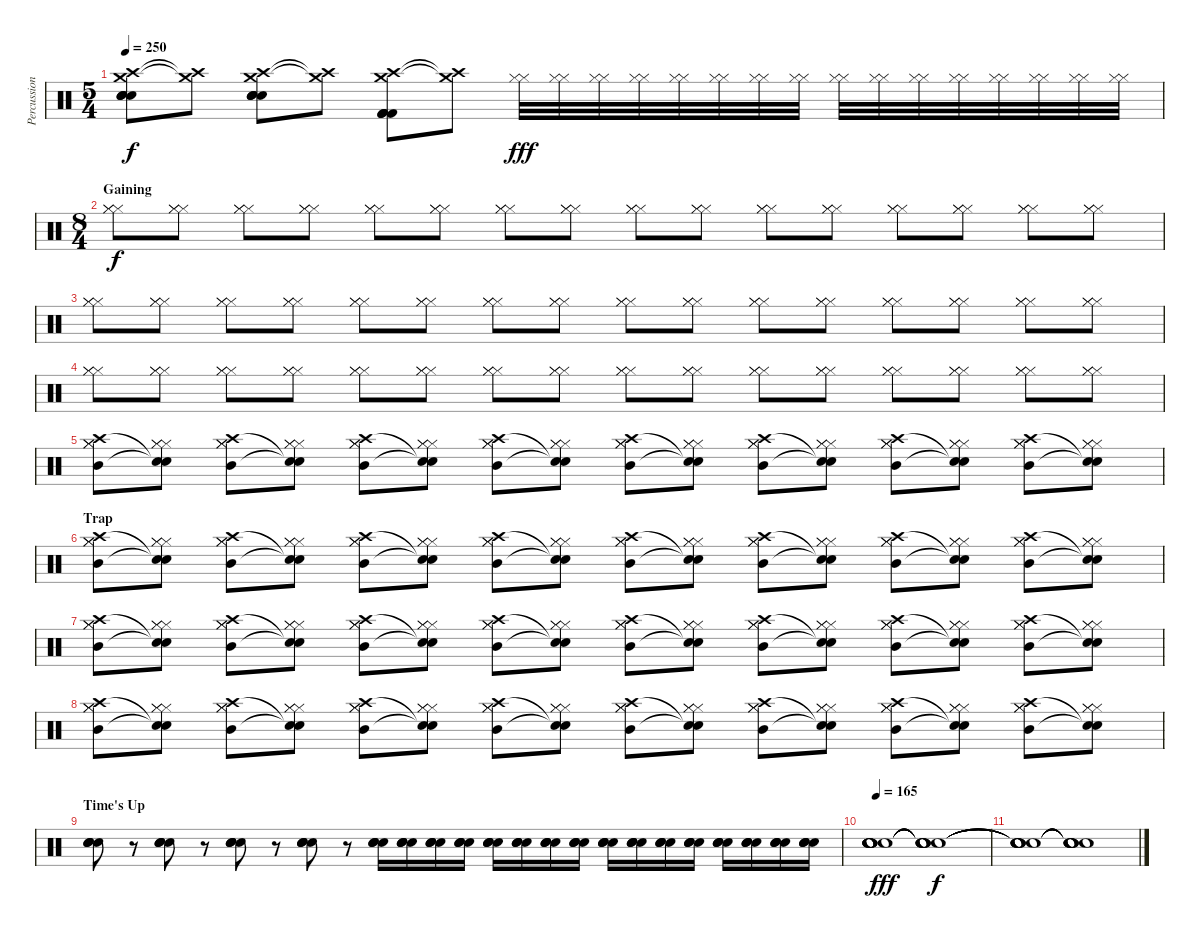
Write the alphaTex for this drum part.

\track ("Percussion" "Percussion") {instrument percussion}
\staff {score}
\articulation defaults
\ts (5 4)
\tempo 250
\clef neutral
\ks c
("Crash high (hit)" "Crash medium (hit)" "Snare (hit) 2" "Snare (hit) 2" "Snare (hit) 2" "Snare (hit) 2").8{dy f} ("Crash high (hit)"{t} "Crash medium (hit)"{t}).8 ("Crash high (hit)" "Crash medium (hit)" "Snare (hit) 2" "Snare (hit) 2" "Snare (hit) 2" "Snare (hit) 2").8 ("Crash high (hit)"{t} "Crash medium (hit)"{t}).8 ("Crash high (hit)" "Crash medium (hit)" "Kick (hit) 2" "Kick (hit) 2" "Kick (hit) 2" "Kick (hit) 2").8 ("Crash high (hit)"{t} "Crash medium (hit)"{t}).8 ("Hi-Hat (closed)" "Hi-Hat (closed)").32{dy fff} ("Hi-Hat (closed)" "Hi-Hat (closed)").32 ("Hi-Hat (closed)" "Hi-Hat (closed)").32 ("Hi-Hat (closed)" "Hi-Hat (closed)").32 ("Hi-Hat (closed)" "Hi-Hat (closed)").32 ("Hi-Hat (closed)" "Hi-Hat (closed)").32 ("Hi-Hat (closed)" "Hi-Hat (closed)").32 ("Hi-Hat (closed)" "Hi-Hat (closed)").32 ("Hi-Hat (closed)" "Hi-Hat (closed)").32 ("Hi-Hat (closed)" "Hi-Hat (closed)").32 ("Hi-Hat (closed)" "Hi-Hat (closed)").32 ("Hi-Hat (closed)" "Hi-Hat (closed)").32 ("Hi-Hat (closed)" "Hi-Hat (closed)").32 ("Hi-Hat (closed)" "Hi-Hat (closed)").32 ("Hi-Hat (closed)" "Hi-Hat (closed)").32 ("Hi-Hat (closed)" "Hi-Hat (closed)").32 |
\ts (8 4)
\section ("" "Gaining")
("Hi-Hat (closed)" "Hi-Hat (closed)" "Hi-Hat (closed)").8{dy f} ("Hi-Hat (closed)" "Hi-Hat (closed)" "Hi-Hat (closed)").8 ("Hi-Hat (closed)" "Hi-Hat (closed)" "Hi-Hat (closed)").8 ("Hi-Hat (closed)" "Hi-Hat (closed)" "Hi-Hat (closed)").8 ("Hi-Hat (closed)" "Hi-Hat (closed)" "Hi-Hat (closed)").8 ("Hi-Hat (closed)" "Hi-Hat (closed)" "Hi-Hat (closed)").8 ("Hi-Hat (closed)" "Hi-Hat (closed)" "Hi-Hat (closed)").8 ("Hi-Hat (closed)" "Hi-Hat (closed)" "Hi-Hat (closed)").8 ("Hi-Hat (closed)" "Hi-Hat (closed)" "Hi-Hat (closed)").8 ("Hi-Hat (closed)" "Hi-Hat (closed)" "Hi-Hat (closed)").8 ("Hi-Hat (closed)" "Hi-Hat (closed)" "Hi-Hat (closed)").8 ("Hi-Hat (closed)" "Hi-Hat (closed)" "Hi-Hat (closed)").8 ("Hi-Hat (closed)" "Hi-Hat (closed)" "Hi-Hat (closed)").8 ("Hi-Hat (closed)" "Hi-Hat (closed)" "Hi-Hat (closed)").8 ("Hi-Hat (closed)" "Hi-Hat (closed)" "Hi-Hat (closed)").8 ("Hi-Hat (closed)" "Hi-Hat (closed)" "Hi-Hat (closed)").8 |
("Hi-Hat (closed)" "Hi-Hat (closed)" "Hi-Hat (closed)").8 ("Hi-Hat (closed)" "Hi-Hat (closed)" "Hi-Hat (closed)").8 ("Hi-Hat (closed)" "Hi-Hat (closed)" "Hi-Hat (closed)").8 ("Hi-Hat (closed)" "Hi-Hat (closed)" "Hi-Hat (closed)").8 ("Hi-Hat (closed)" "Hi-Hat (closed)" "Hi-Hat (closed)").8 ("Hi-Hat (closed)" "Hi-Hat (closed)" "Hi-Hat (closed)").8 ("Hi-Hat (closed)" "Hi-Hat (closed)" "Hi-Hat (closed)").8 ("Hi-Hat (closed)" "Hi-Hat (closed)" "Hi-Hat (closed)").8 ("Hi-Hat (closed)" "Hi-Hat (closed)" "Hi-Hat (closed)").8 ("Hi-Hat (closed)" "Hi-Hat (closed)" "Hi-Hat (closed)").8 ("Hi-Hat (closed)" "Hi-Hat (closed)" "Hi-Hat (closed)").8 ("Hi-Hat (closed)" "Hi-Hat (closed)" "Hi-Hat (closed)").8 ("Hi-Hat (closed)" "Hi-Hat (closed)" "Hi-Hat (closed)").8 ("Hi-Hat (closed)" "Hi-Hat (closed)" "Hi-Hat (closed)").8 ("Hi-Hat (closed)" "Hi-Hat (closed)" "Hi-Hat (closed)").8 ("Hi-Hat (closed)" "Hi-Hat (closed)" "Hi-Hat (closed)").8 |
("Hi-Hat (closed)" "Hi-Hat (closed)" "Hi-Hat (closed)").8 ("Hi-Hat (closed)" "Hi-Hat (closed)" "Hi-Hat (closed)").8 ("Hi-Hat (closed)" "Hi-Hat (closed)" "Hi-Hat (closed)").8 ("Hi-Hat (closed)" "Hi-Hat (closed)" "Hi-Hat (closed)").8 ("Hi-Hat (closed)" "Hi-Hat (closed)" "Hi-Hat (closed)").8 ("Hi-Hat (closed)" "Hi-Hat (closed)" "Hi-Hat (closed)").8 ("Hi-Hat (closed)" "Hi-Hat (closed)" "Hi-Hat (closed)").8 ("Hi-Hat (closed)" "Hi-Hat (closed)" "Hi-Hat (closed)").8 ("Hi-Hat (closed)" "Hi-Hat (closed)" "Hi-Hat (closed)").8 ("Hi-Hat (closed)" "Hi-Hat (closed)" "Hi-Hat (closed)").8 ("Hi-Hat (closed)" "Hi-Hat (closed)" "Hi-Hat (closed)").8 ("Hi-Hat (closed)" "Hi-Hat (closed)" "Hi-Hat (closed)").8 ("Hi-Hat (closed)" "Hi-Hat (closed)" "Hi-Hat (closed)").8 ("Hi-Hat (closed)" "Hi-Hat (closed)" "Hi-Hat (closed)").8 ("Hi-Hat (closed)" "Hi-Hat (closed)" "Hi-Hat (closed)").8 ("Hi-Hat (closed)" "Hi-Hat (closed)" "Hi-Hat (closed)").8 |
("Hi-Hat (closed)" "Hi-Hat (closed)" "Hi-Hat (closed)" "Crash high (hit)" "Mid Tom (hit)").8 ("Hi-Hat (closed)" "Hi-Hat (closed)" "Hi-Hat (closed)" "Snare (hit)"{t} "Snare (hit)"{t}).8 ("Hi-Hat (closed)" "Hi-Hat (closed)" "Hi-Hat (closed)" "Crash high (hit)" "Mid Tom (hit)").8 ("Hi-Hat (closed)" "Hi-Hat (closed)" "Hi-Hat (closed)" "Snare (hit)"{t} "Snare (hit)"{t}).8 ("Hi-Hat (closed)" "Hi-Hat (closed)" "Hi-Hat (closed)" "Crash high (hit)" "Mid Tom (hit)").8 ("Hi-Hat (closed)" "Hi-Hat (closed)" "Hi-Hat (closed)" "Snare (hit)"{t} "Snare (hit)"{t}).8 ("Hi-Hat (closed)" "Hi-Hat (closed)" "Hi-Hat (closed)" "Crash high (hit)" "Mid Tom (hit)").8 ("Hi-Hat (closed)" "Hi-Hat (closed)" "Hi-Hat (closed)" "Snare (hit)"{t} "Snare (hit)"{t}).8 ("Hi-Hat (closed)" "Hi-Hat (closed)" "Hi-Hat (closed)" "Crash high (hit)" "Mid Tom (hit)").8 ("Hi-Hat (closed)" "Hi-Hat (closed)" "Hi-Hat (closed)" "Snare (hit)"{t} "Snare (hit)"{t}).8 ("Hi-Hat (closed)" "Hi-Hat (closed)" "Hi-Hat (closed)" "Crash high (hit)" "Mid Tom (hit)").8 ("Hi-Hat (closed)" "Hi-Hat (closed)" "Hi-Hat (closed)" "Snare (hit)"{t} "Snare (hit)"{t}).8 ("Hi-Hat (closed)" "Hi-Hat (closed)" "Hi-Hat (closed)" "Crash high (hit)" "Mid Tom (hit)").8 ("Hi-Hat (closed)" "Hi-Hat (closed)" "Hi-Hat (closed)" "Snare (hit)"{t} "Snare (hit)"{t}).8 ("Hi-Hat (closed)" "Hi-Hat (closed)" "Hi-Hat (closed)" "Crash high (hit)" "Mid Tom (hit)").8 ("Hi-Hat (closed)" "Hi-Hat (closed)" "Hi-Hat (closed)" "Snare (hit)"{t} "Snare (hit)"{t}).8 |
\section ("" "Trap")
("Hi-Hat (closed)" "Hi-Hat (closed)" "Hi-Hat (closed)" "Crash high (hit)" "Mid Tom (hit)").8 ("Hi-Hat (closed)" "Hi-Hat (closed)" "Hi-Hat (closed)" "Snare (hit)"{t} "Snare (hit)"{t}).8 ("Hi-Hat (closed)" "Hi-Hat (closed)" "Hi-Hat (closed)" "Crash high (hit)" "Mid Tom (hit)").8 ("Hi-Hat (closed)" "Hi-Hat (closed)" "Hi-Hat (closed)" "Snare (hit)"{t} "Snare (hit)"{t}).8 ("Hi-Hat (closed)" "Hi-Hat (closed)" "Hi-Hat (closed)" "Crash high (hit)" "Mid Tom (hit)").8 ("Hi-Hat (closed)" "Hi-Hat (closed)" "Hi-Hat (closed)" "Snare (hit)"{t} "Snare (hit)"{t}).8 ("Hi-Hat (closed)" "Hi-Hat (closed)" "Hi-Hat (closed)" "Crash high (hit)" "Mid Tom (hit)").8 ("Hi-Hat (closed)" "Hi-Hat (closed)" "Hi-Hat (closed)" "Snare (hit)"{t} "Snare (hit)"{t}).8 ("Hi-Hat (closed)" "Hi-Hat (closed)" "Hi-Hat (closed)" "Crash high (hit)" "Mid Tom (hit)").8 ("Hi-Hat (closed)" "Hi-Hat (closed)" "Hi-Hat (closed)" "Snare (hit)"{t} "Snare (hit)"{t}).8 ("Hi-Hat (closed)" "Hi-Hat (closed)" "Hi-Hat (closed)" "Crash high (hit)" "Mid Tom (hit)").8 ("Hi-Hat (closed)" "Hi-Hat (closed)" "Hi-Hat (closed)" "Snare (hit)"{t} "Snare (hit)"{t}).8 ("Hi-Hat (closed)" "Hi-Hat (closed)" "Hi-Hat (closed)" "Crash high (hit)" "Mid Tom (hit)").8 ("Hi-Hat (closed)" "Hi-Hat (closed)" "Hi-Hat (closed)" "Snare (hit)"{t} "Snare (hit)"{t}).8 ("Hi-Hat (closed)" "Hi-Hat (closed)" "Hi-Hat (closed)" "Crash high (hit)" "Mid Tom (hit)").8 ("Hi-Hat (closed)" "Hi-Hat (closed)" "Hi-Hat (closed)" "Snare (hit)"{t} "Snare (hit)"{t}).8 |
("Hi-Hat (closed)" "Hi-Hat (closed)" "Hi-Hat (closed)" "Crash high (hit)" "Mid Tom (hit)").8 ("Hi-Hat (closed)" "Hi-Hat (closed)" "Hi-Hat (closed)" "Snare (hit)"{t} "Snare (hit)"{t}).8 ("Hi-Hat (closed)" "Hi-Hat (closed)" "Hi-Hat (closed)" "Crash high (hit)" "Mid Tom (hit)").8 ("Hi-Hat (closed)" "Hi-Hat (closed)" "Hi-Hat (closed)" "Snare (hit)"{t} "Snare (hit)"{t}).8 ("Hi-Hat (closed)" "Hi-Hat (closed)" "Hi-Hat (closed)" "Crash high (hit)" "Mid Tom (hit)").8 ("Hi-Hat (closed)" "Hi-Hat (closed)" "Hi-Hat (closed)" "Snare (hit)"{t} "Snare (hit)"{t}).8 ("Hi-Hat (closed)" "Hi-Hat (closed)" "Hi-Hat (closed)" "Crash high (hit)" "Mid Tom (hit)").8 ("Hi-Hat (closed)" "Hi-Hat (closed)" "Hi-Hat (closed)" "Snare (hit)"{t} "Snare (hit)"{t}).8 ("Hi-Hat (closed)" "Hi-Hat (closed)" "Hi-Hat (closed)" "Crash high (hit)" "Mid Tom (hit)").8 ("Hi-Hat (closed)" "Hi-Hat (closed)" "Hi-Hat (closed)" "Snare (hit)"{t} "Snare (hit)"{t}).8 ("Hi-Hat (closed)" "Hi-Hat (closed)" "Hi-Hat (closed)" "Crash high (hit)" "Mid Tom (hit)").8 ("Hi-Hat (closed)" "Hi-Hat (closed)" "Hi-Hat (closed)" "Snare (hit)"{t} "Snare (hit)"{t}).8 ("Hi-Hat (closed)" "Hi-Hat (closed)" "Hi-Hat (closed)" "Crash high (hit)" "Mid Tom (hit)").8 ("Hi-Hat (closed)" "Hi-Hat (closed)" "Hi-Hat (closed)" "Snare (hit)"{t} "Snare (hit)"{t}).8 ("Hi-Hat (closed)" "Hi-Hat (closed)" "Hi-Hat (closed)" "Crash high (hit)" "Mid Tom (hit)").8 ("Hi-Hat (closed)" "Hi-Hat (closed)" "Hi-Hat (closed)" "Snare (hit)"{t} "Snare (hit)"{t}).8 |
("Hi-Hat (closed)" "Hi-Hat (closed)" "Hi-Hat (closed)" "Crash high (hit)" "Mid Tom (hit)").8 ("Hi-Hat (closed)" "Hi-Hat (closed)" "Hi-Hat (closed)" "Snare (hit)"{t} "Snare (hit)"{t}).8 ("Hi-Hat (closed)" "Hi-Hat (closed)" "Hi-Hat (closed)" "Crash high (hit)" "Mid Tom (hit)").8 ("Hi-Hat (closed)" "Hi-Hat (closed)" "Hi-Hat (closed)" "Snare (hit)"{t} "Snare (hit)"{t}).8 ("Hi-Hat (closed)" "Hi-Hat (closed)" "Hi-Hat (closed)" "Crash high (hit)" "Mid Tom (hit)").8 ("Hi-Hat (closed)" "Hi-Hat (closed)" "Hi-Hat (closed)" "Snare (hit)"{t} "Snare (hit)"{t}).8 ("Hi-Hat (closed)" "Hi-Hat (closed)" "Hi-Hat (closed)" "Crash high (hit)" "Mid Tom (hit)").8 ("Hi-Hat (closed)" "Hi-Hat (closed)" "Hi-Hat (closed)" "Snare (hit)"{t} "Snare (hit)"{t}).8 ("Hi-Hat (closed)" "Hi-Hat (closed)" "Hi-Hat (closed)" "Crash high (hit)" "Mid Tom (hit)").8 ("Hi-Hat (closed)" "Hi-Hat (closed)" "Hi-Hat (closed)" "Snare (hit)"{t} "Snare (hit)"{t}).8 ("Hi-Hat (closed)" "Hi-Hat (closed)" "Hi-Hat (closed)" "Crash high (hit)" "Mid Tom (hit)").8 ("Hi-Hat (closed)" "Hi-Hat (closed)" "Hi-Hat (closed)" "Snare (hit)"{t} "Snare (hit)"{t}).8 ("Hi-Hat (closed)" "Hi-Hat (closed)" "Hi-Hat (closed)" "Crash high (hit)" "Mid Tom (hit)").8 ("Hi-Hat (closed)" "Hi-Hat (closed)" "Hi-Hat (closed)" "Snare (hit)"{t} "Snare (hit)"{t}).8 ("Hi-Hat (closed)" "Hi-Hat (closed)" "Hi-Hat (closed)" "Crash high (hit)" "Mid Tom (hit)").8 ("Hi-Hat (closed)" "Hi-Hat (closed)" "Hi-Hat (closed)" "Snare (hit)"{t} "Snare (hit)"{t}).8 |
\section ("" "Time's Up")
("Snare (hit) 2" "Snare (hit) 2" "Snare (hit) 2" "Snare (hit) 2").8 r.8 ("Snare (hit) 2" "Snare (hit) 2" "Snare (hit) 2" "Snare (hit) 2").8 r.8 ("Snare (hit) 2" "Snare (hit) 2" "Snare (hit) 2" "Snare (hit) 2").8 r.8 ("Snare (hit) 2" "Snare (hit) 2" "Snare (hit) 2" "Snare (hit) 2").8 r.8 ("Snare (hit) 2" "Snare (hit) 2" "Snare (hit) 2" "Snare (hit) 2").16 ("Snare (hit) 2" "Snare (hit) 2" "Snare (hit) 2" "Snare (hit) 2").16 ("Snare (hit) 2" "Snare (hit) 2" "Snare (hit) 2" "Snare (hit) 2").16 ("Snare (hit) 2" "Snare (hit) 2" "Snare (hit) 2" "Snare (hit) 2").16 ("Snare (hit) 2" "Snare (hit) 2" "Snare (hit) 2" "Snare (hit) 2").16 ("Snare (hit) 2" "Snare (hit) 2" "Snare (hit) 2" "Snare (hit) 2").16 ("Snare (hit) 2" "Snare (hit) 2" "Snare (hit) 2" "Snare (hit) 2").16 ("Snare (hit) 2" "Snare (hit) 2" "Snare (hit) 2" "Snare (hit) 2").16 ("Snare (hit) 2" "Snare (hit) 2" "Snare (hit) 2" "Snare (hit) 2").16 ("Snare (hit) 2" "Snare (hit) 2" "Snare (hit) 2" "Snare (hit) 2").16 ("Snare (hit) 2" "Snare (hit) 2" "Snare (hit) 2" "Snare (hit) 2").16 ("Snare (hit) 2" "Snare (hit) 2" "Snare (hit) 2" "Snare (hit) 2").16 ("Snare (hit) 2" "Snare (hit) 2" "Snare (hit) 2" "Snare (hit) 2").16 ("Snare (hit) 2" "Snare (hit) 2" "Snare (hit) 2" "Snare (hit) 2").16 ("Snare (hit) 2" "Snare (hit) 2" "Snare (hit) 2" "Snare (hit) 2").16 ("Snare (hit) 2" "Snare (hit) 2" "Snare (hit) 2" "Snare (hit) 2").16 |
\tempo 165
("Snare (hit) 2" "Snare (hit) 2" "Snare (hit) 2" "Snare (hit) 2" "Snare (hit) 2" "Snare (hit) 2").1{dy fff} ("Snare (hit)"{t} "Snare (hit)"{t} "Snare (hit)"{t} "Snare (hit)"{t} "Snare (hit)"{t} "Snare (hit)"{t}).1{dy f} |
("Snare (hit)"{t} "Snare (hit)"{t} "Snare (hit)"{t} "Snare (hit)"{t} "Snare (hit)"{t} "Snare (hit)"{t}).1 ("Snare (hit)"{t} "Snare (hit)"{t} "Snare (hit)"{t} "Snare (hit)"{t} "Snare (hit)"{t} "Snare (hit)"{t}).1
